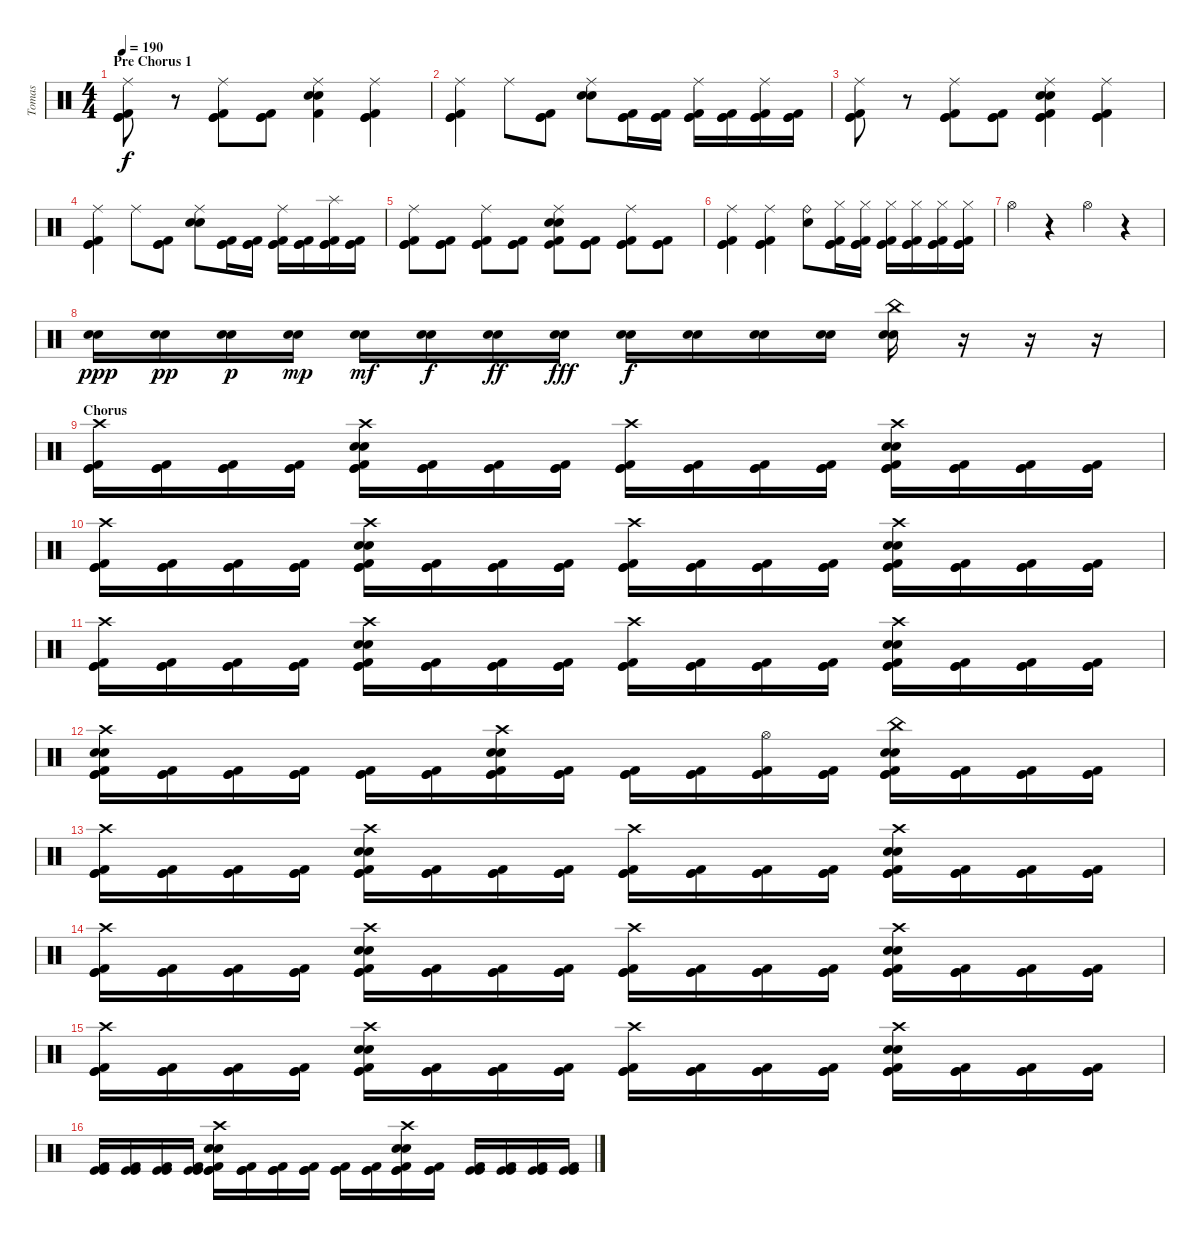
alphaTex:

\track ("Tomas" "Tomas") {instrument percussion}
\staff {score}
\articulation defaults
\ts (4 4)
\section ("" "Pre Chorus 1")
\tempo 190
\clef neutral
\ks c
("Ride (middle)" "Kick (hit)" "Kick (hit)" "Kick (hit) 2").8{dy f} r.8 ("Ride (middle)" "Kick (hit)" "Kick (hit)" "Kick (hit) 2").8 ("Kick (hit)" "Kick (hit)" "Kick (hit) 2").8 ("Ride (middle)" "Kick (hit) 2" "Electric Snare (hit)" "Electric Snare (hit)").4 ("Ride (middle)" "Kick (hit)" "Kick (hit)" "Kick (hit) 2").4 |
("Ride (middle)" "Kick (hit)" "Kick (hit)" "Kick (hit) 2").4 "Ride (middle)".8 ("Kick (hit)" "Kick (hit)" "Kick (hit) 2").8 ("Ride (middle)" "Electric Snare (hit)" "Electric Snare (hit)").8 ("Kick (hit)" "Kick (hit)" "Kick (hit) 2").16 ("Kick (hit)" "Kick (hit)" "Kick (hit) 2").16 ("Ride (middle)" "Kick (hit)" "Kick (hit)" "Kick (hit) 2").16 ("Kick (hit)" "Kick (hit)" "Kick (hit) 2").16 ("Ride (middle)" "Kick (hit)" "Kick (hit)" "Kick (hit) 2").16 ("Kick (hit)" "Kick (hit)" "Kick (hit) 2").16 |
("Ride (middle)" "Kick (hit)" "Kick (hit)" "Kick (hit) 2").8 r.8 ("Ride (middle)" "Kick (hit)" "Kick (hit)" "Kick (hit) 2").8 ("Kick (hit)" "Kick (hit)" "Kick (hit) 2").8 ("Ride (middle)" "Kick (hit)" "Kick (hit)" "Kick (hit) 2" "Electric Snare (hit)" "Electric Snare (hit)").4 ("Ride (middle)" "Kick (hit)" "Kick (hit)" "Kick (hit) 2").4 |
("Ride (middle)" "Kick (hit)" "Kick (hit)" "Kick (hit) 2").4 "Ride (middle)".8 ("Kick (hit)" "Kick (hit)" "Kick (hit) 2").8 ("Ride (middle)" "Electric Snare (hit)" "Electric Snare (hit)").8 ("Kick (hit)" "Kick (hit)" "Kick (hit) 2").16 ("Kick (hit)" "Kick (hit)" "Kick (hit) 2").16 ("Ride (middle)" "Kick (hit)" "Kick (hit)" "Kick (hit) 2").16 ("Kick (hit)" "Kick (hit)" "Kick (hit) 2").16 ("Splash (hit)" "Kick (hit)" "Kick (hit)" "Kick (hit) 2").16 ("Kick (hit)" "Kick (hit)" "Kick (hit) 2").16 |
("Ride (middle)" "Kick (hit)" "Kick (hit)" "Kick (hit) 2").8 ("Kick (hit)" "Kick (hit)" "Kick (hit) 2").8 ("Ride (middle)" "Kick (hit)" "Kick (hit)" "Kick (hit) 2").8 ("Kick (hit)" "Kick (hit)" "Kick (hit) 2").8 ("Ride (middle)" "Kick (hit)" "Kick (hit) 2" "Electric Snare (hit)" "Electric Snare (hit)").8 ("Kick (hit)" "Kick (hit)" "Kick (hit) 2").8 ("Ride (middle)" "Kick (hit)" "Kick (hit)" "Kick (hit) 2").8 ("Kick (hit)" "Kick (hit)" "Kick (hit) 2").8 |
("Ride (middle)" "Kick (hit)" "Kick (hit)" "Kick (hit) 2").4 ("Ride (middle)" "Kick (hit)" "Kick (hit)" "Kick (hit) 2").4 ("Ride (bell)" "Electric Snare (hit)").8 ("Hi-Hat (closed)" "Kick (hit)" "Kick (hit)" "Kick (hit) 2").16 ("Hi-Hat (closed)" "Kick (hit)" "Kick (hit)" "Kick (hit) 2").16 ("Hi-Hat (closed)" "Kick (hit)" "Kick (hit)" "Kick (hit) 2").16 ("Hi-Hat (closed)" "Kick (hit)" "Kick (hit)" "Kick (hit) 2").16 ("Hi-Hat (closed)" "Kick (hit)" "Kick (hit)" "Kick (hit) 2").16 ("Hi-Hat (closed)" "Kick (hit)" "Kick (hit)" "Kick (hit) 2").16 |
"Hi-Hat (open)".4 r.4 "Hi-Hat (open)".4 r.4 |
("Electric Snare (hit)" "Electric Snare (hit)").16{dy ppp} ("Electric Snare (hit)" "Electric Snare (hit)").16{dy pp} ("Electric Snare (hit)" "Electric Snare (hit)").16{dy p} ("Electric Snare (hit)" "Electric Snare (hit)").16{dy mp} ("Electric Snare (hit)" "Electric Snare (hit)").16{dy mf} ("Electric Snare (hit)" "Electric Snare (hit)").16{dy f} ("Electric Snare (hit)" "Electric Snare (hit)").16{dy ff} ("Electric Snare (hit)" "Electric Snare (hit)").16{dy fff} ("Electric Snare (hit)" "Electric Snare (hit)").16{dy f} ("Electric Snare (hit)" "Electric Snare (hit)").16 ("Electric Snare (hit)" "Electric Snare (hit)").16 ("Electric Snare (hit)" "Electric Snare (hit)").16 ("China (hit)" "Electric Snare (hit)" "Electric Snare (hit)").16 r.16 r.16 r.16 |
\section ("" "Chorus")
("Crash high (hit)" "Kick (hit)" "Kick (hit)" "Kick (hit) 2").16 ("Kick (hit)" "Kick (hit)" "Kick (hit) 2").16 ("Kick (hit)" "Kick (hit)" "Kick (hit) 2").16 ("Kick (hit)" "Kick (hit)" "Kick (hit) 2").16 ("Crash high (hit)" "Kick (hit)" "Electric Snare (hit)" "Electric Snare (hit)" "Kick (hit)" "Kick (hit) 2").16 ("Kick (hit)" "Kick (hit)" "Kick (hit) 2").16 ("Kick (hit)" "Kick (hit)" "Kick (hit) 2").16 ("Kick (hit)" "Kick (hit)" "Kick (hit) 2").16 ("Crash high (hit)" "Kick (hit)" "Kick (hit)" "Kick (hit) 2").16 ("Kick (hit)" "Kick (hit)" "Kick (hit) 2").16 ("Kick (hit)" "Kick (hit)" "Kick (hit) 2").16 ("Kick (hit)" "Kick (hit)" "Kick (hit) 2").16 ("Crash high (hit)" "Kick (hit)" "Electric Snare (hit)" "Electric Snare (hit)" "Kick (hit)" "Kick (hit) 2").16 ("Kick (hit)" "Kick (hit)" "Kick (hit) 2").16 ("Kick (hit)" "Kick (hit)" "Kick (hit) 2").16 ("Kick (hit)" "Kick (hit)" "Kick (hit) 2").16 |
("Crash high (hit)" "Kick (hit)" "Kick (hit)" "Kick (hit) 2").16 ("Kick (hit)" "Kick (hit)" "Kick (hit) 2").16 ("Kick (hit)" "Kick (hit)" "Kick (hit) 2").16 ("Kick (hit)" "Kick (hit)" "Kick (hit) 2").16 ("Crash high (hit)" "Kick (hit)" "Electric Snare (hit)" "Electric Snare (hit)" "Kick (hit)" "Kick (hit) 2").16 ("Kick (hit)" "Kick (hit)" "Kick (hit) 2").16 ("Kick (hit)" "Kick (hit)" "Kick (hit) 2").16 ("Kick (hit)" "Kick (hit)" "Kick (hit) 2").16 ("Crash high (hit)" "Kick (hit)" "Kick (hit)" "Kick (hit) 2").16 ("Kick (hit)" "Kick (hit)" "Kick (hit) 2").16 ("Kick (hit)" "Kick (hit)" "Kick (hit) 2").16 ("Kick (hit)" "Kick (hit)" "Kick (hit) 2").16 ("Crash high (hit)" "Kick (hit)" "Electric Snare (hit)" "Electric Snare (hit)" "Kick (hit)" "Kick (hit) 2").16 ("Kick (hit)" "Kick (hit)" "Kick (hit) 2").16 ("Kick (hit)" "Kick (hit)" "Kick (hit) 2").16 ("Kick (hit)" "Kick (hit)" "Kick (hit) 2").16 |
("Crash high (hit)" "Kick (hit)" "Kick (hit)" "Kick (hit) 2").16 ("Kick (hit)" "Kick (hit)" "Kick (hit) 2").16 ("Kick (hit)" "Kick (hit)" "Kick (hit) 2").16 ("Kick (hit)" "Kick (hit)" "Kick (hit) 2").16 ("Crash high (hit)" "Kick (hit)" "Electric Snare (hit)" "Electric Snare (hit)" "Kick (hit)" "Kick (hit) 2").16 ("Kick (hit)" "Kick (hit)" "Kick (hit) 2").16 ("Kick (hit)" "Kick (hit)" "Kick (hit) 2").16 ("Kick (hit)" "Kick (hit)" "Kick (hit) 2").16 ("Crash high (hit)" "Kick (hit)" "Kick (hit)" "Kick (hit) 2").16 ("Kick (hit)" "Kick (hit)" "Kick (hit) 2").16 ("Kick (hit)" "Kick (hit)" "Kick (hit) 2").16 ("Kick (hit)" "Kick (hit)" "Kick (hit) 2").16 ("Crash high (hit)" "Kick (hit)" "Electric Snare (hit)" "Electric Snare (hit)" "Kick (hit)" "Kick (hit) 2").16 ("Kick (hit)" "Kick (hit)" "Kick (hit) 2").16 ("Kick (hit)" "Kick (hit)" "Kick (hit) 2").16 ("Kick (hit)" "Kick (hit)" "Kick (hit) 2").16 |
("Crash high (hit)" "Kick (hit)" "Electric Snare (hit)" "Electric Snare (hit)" "Kick (hit)" "Kick (hit) 2").16 ("Kick (hit)" "Kick (hit)" "Kick (hit) 2").16 ("Kick (hit)" "Kick (hit)" "Kick (hit) 2").16 ("Kick (hit)" "Kick (hit)" "Kick (hit) 2").16 ("Kick (hit)" "Kick (hit)" "Kick (hit) 2").16 ("Kick (hit)" "Kick (hit)" "Kick (hit) 2").16 ("Crash high (hit)" "Kick (hit)" "Electric Snare (hit)" "Electric Snare (hit)" "Kick (hit)" "Kick (hit) 2").16 ("Kick (hit)" "Kick (hit)" "Kick (hit) 2").16 ("Kick (hit)" "Kick (hit)" "Kick (hit) 2").16 ("Kick (hit)" "Kick (hit)" "Kick (hit) 2").16 ("Hi-Hat (open)" "Kick (hit)" "Kick (hit)" "Kick (hit) 2").16 ("Kick (hit)" "Kick (hit)" "Kick (hit) 2").16 ("China (hit)" "Kick (hit)" "Electric Snare (hit)" "Electric Snare (hit)" "Kick (hit)" "Kick (hit) 2").16 ("Kick (hit)" "Kick (hit)" "Kick (hit) 2").16 ("Kick (hit)" "Kick (hit)" "Kick (hit) 2").16 ("Kick (hit)" "Kick (hit)" "Kick (hit) 2").16 |
("Crash high (hit)" "Kick (hit)" "Kick (hit)" "Kick (hit) 2").16 ("Kick (hit)" "Kick (hit)" "Kick (hit) 2").16 ("Kick (hit)" "Kick (hit)" "Kick (hit) 2").16 ("Kick (hit)" "Kick (hit)" "Kick (hit) 2").16 ("Crash high (hit)" "Kick (hit)" "Electric Snare (hit)" "Electric Snare (hit)" "Kick (hit)" "Kick (hit) 2").16 ("Kick (hit)" "Kick (hit)" "Kick (hit) 2").16 ("Kick (hit)" "Kick (hit)" "Kick (hit) 2").16 ("Kick (hit)" "Kick (hit)" "Kick (hit) 2").16 ("Crash high (hit)" "Kick (hit)" "Kick (hit)" "Kick (hit) 2").16 ("Kick (hit)" "Kick (hit)" "Kick (hit) 2").16 ("Kick (hit)" "Kick (hit)" "Kick (hit) 2").16 ("Kick (hit)" "Kick (hit)" "Kick (hit) 2").16 ("Crash high (hit)" "Kick (hit)" "Electric Snare (hit)" "Electric Snare (hit)" "Kick (hit)" "Kick (hit) 2").16 ("Kick (hit)" "Kick (hit)" "Kick (hit) 2").16 ("Kick (hit)" "Kick (hit)" "Kick (hit) 2").16 ("Kick (hit)" "Kick (hit)" "Kick (hit) 2").16 |
("Crash high (hit)" "Kick (hit)" "Kick (hit)" "Kick (hit) 2").16 ("Kick (hit)" "Kick (hit)" "Kick (hit) 2").16 ("Kick (hit)" "Kick (hit)" "Kick (hit) 2").16 ("Kick (hit)" "Kick (hit)" "Kick (hit) 2").16 ("Crash high (hit)" "Kick (hit)" "Electric Snare (hit)" "Electric Snare (hit)" "Kick (hit)" "Kick (hit) 2").16 ("Kick (hit)" "Kick (hit)" "Kick (hit) 2").16 ("Kick (hit)" "Kick (hit)" "Kick (hit) 2").16 ("Kick (hit)" "Kick (hit)" "Kick (hit) 2").16 ("Crash high (hit)" "Kick (hit)" "Kick (hit)" "Kick (hit) 2").16 ("Kick (hit)" "Kick (hit)" "Kick (hit) 2").16 ("Kick (hit)" "Kick (hit)" "Kick (hit) 2").16 ("Kick (hit)" "Kick (hit)" "Kick (hit) 2").16 ("Crash high (hit)" "Kick (hit)" "Electric Snare (hit)" "Electric Snare (hit)" "Kick (hit)" "Kick (hit) 2").16 ("Kick (hit)" "Kick (hit)" "Kick (hit) 2").16 ("Kick (hit)" "Kick (hit)" "Kick (hit) 2").16 ("Kick (hit)" "Kick (hit)" "Kick (hit) 2").16 |
("Crash high (hit)" "Kick (hit)" "Kick (hit)" "Kick (hit) 2").16 ("Kick (hit)" "Kick (hit)" "Kick (hit) 2").16 ("Kick (hit)" "Kick (hit)" "Kick (hit) 2").16 ("Kick (hit)" "Kick (hit)" "Kick (hit) 2").16 ("Crash high (hit)" "Kick (hit)" "Electric Snare (hit)" "Electric Snare (hit)" "Kick (hit)" "Kick (hit) 2").16 ("Kick (hit)" "Kick (hit)" "Kick (hit) 2").16 ("Kick (hit)" "Kick (hit)" "Kick (hit) 2").16 ("Kick (hit)" "Kick (hit)" "Kick (hit) 2").16 ("Crash high (hit)" "Kick (hit)" "Kick (hit)" "Kick (hit) 2").16 ("Kick (hit)" "Kick (hit)" "Kick (hit) 2").16 ("Kick (hit)" "Kick (hit)" "Kick (hit) 2").16 ("Kick (hit)" "Kick (hit)" "Kick (hit) 2").16 ("Crash high (hit)" "Kick (hit)" "Electric Snare (hit)" "Electric Snare (hit)" "Kick (hit)" "Kick (hit) 2").16 ("Kick (hit)" "Kick (hit)" "Kick (hit) 2").16 ("Kick (hit)" "Kick (hit)" "Kick (hit) 2").16 ("Kick (hit)" "Kick (hit)" "Kick (hit) 2").16 |
("Kick (hit)" "Kick (hit)" "Kick (hit) 2").16 ("Kick (hit)" "Kick (hit)" "Kick (hit) 2").16 ("Kick (hit)" "Kick (hit)" "Kick (hit) 2").16 ("Kick (hit)" "Kick (hit)" "Kick (hit) 2").16 ("Crash high (hit)" "Kick (hit)" "Electric Snare (hit)" "Electric Snare (hit)" "Kick (hit)" "Kick (hit) 2").16 ("Kick (hit)" "Kick (hit)" "Kick (hit) 2").16 ("Kick (hit)" "Kick (hit)" "Kick (hit) 2").16 ("Kick (hit)" "Kick (hit)" "Kick (hit) 2").16 ("Kick (hit)" "Kick (hit)" "Kick (hit) 2").16 ("Kick (hit)" "Kick (hit)" "Kick (hit) 2").16 ("Crash high (hit)" "Kick (hit)" "Electric Snare (hit)" "Electric Snare (hit)" "Kick (hit)" "Kick (hit) 2").16 ("Kick (hit)" "Kick (hit)" "Kick (hit) 2").16 ("Kick (hit)" "Kick (hit)" "Kick (hit) 2").16 ("Kick (hit)" "Kick (hit)" "Kick (hit) 2").16 ("Kick (hit)" "Kick (hit)" "Kick (hit) 2").16 ("Kick (hit)" "Kick (hit)" "Kick (hit) 2").16
